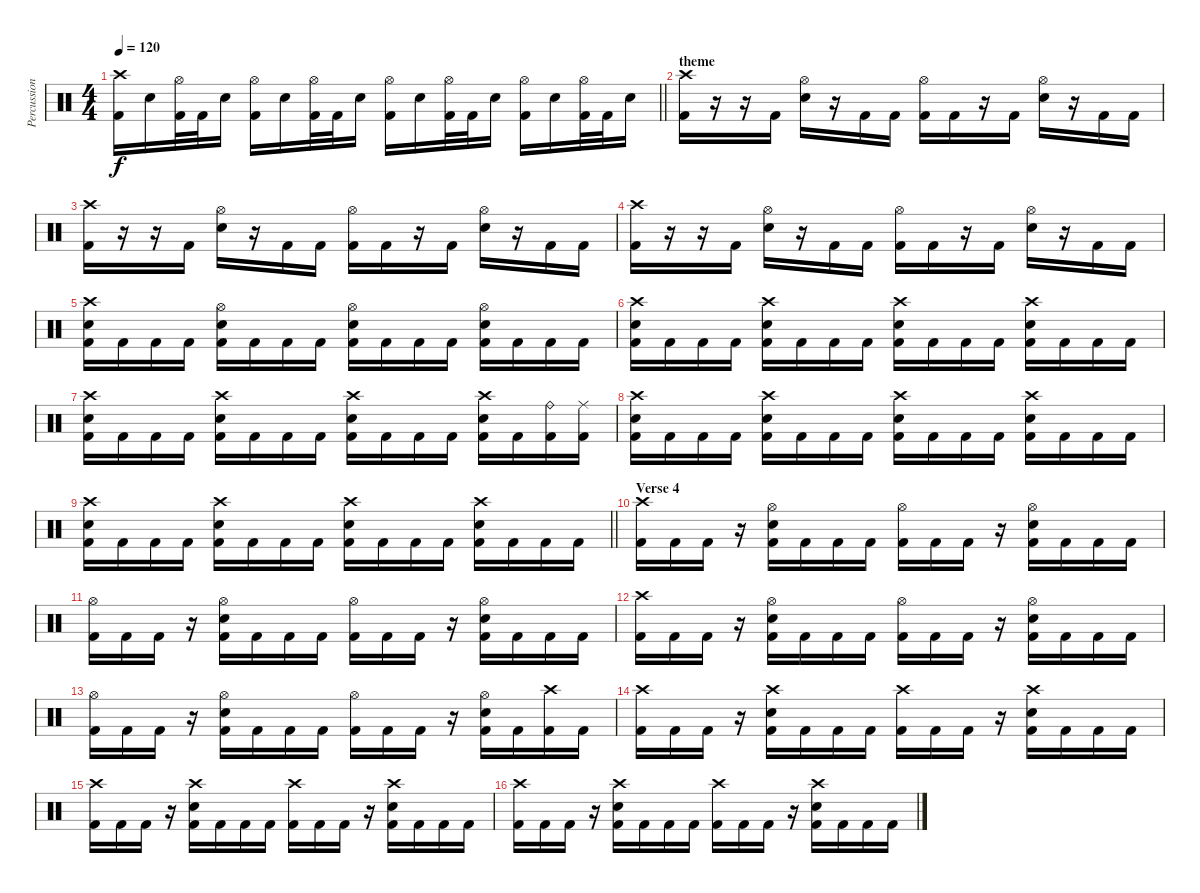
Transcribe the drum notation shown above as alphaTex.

\track ("Percussion" "Percussion") {instrument percussion}
\staff {score}
\articulation defaults
\ts (4 4)
\tempo 120
\clef neutral
\barLineRight lightlight
\ks c
("Crash high (hit)" "Kick (hit) 2").16{dy f} "Snare (hit) 2".16 ("Hi-Hat (open)" "Kick (hit) 2").32 "Kick (hit) 2".32 "Snare (hit) 2".16 ("Hi-Hat (open)" "Kick (hit) 2").16 "Snare (hit) 2".16 ("Hi-Hat (open)" "Kick (hit) 2").32 "Kick (hit) 2".32 "Snare (hit) 2".16 ("Hi-Hat (open)" "Kick (hit) 2").16 "Snare (hit) 2".16 ("Hi-Hat (open)" "Kick (hit) 2").32 "Kick (hit) 2".32 "Snare (hit) 2".16 ("Hi-Hat (open)" "Kick (hit) 2").16 "Snare (hit) 2".16 ("Hi-Hat (open)" "Kick (hit) 2").32 "Kick (hit) 2".32 "Snare (hit) 2".16 |
\section ("" "theme")
("Crash high (hit)" "Kick (hit) 2").16 r.16 r.16 "Kick (hit) 2".16 ("Hi-Hat (open)" "Snare (hit) 2").16 r.16 "Kick (hit) 2".16 "Kick (hit) 2".16 ("Hi-Hat (open)" "Kick (hit) 2").16 "Kick (hit) 2".16 r.16 "Kick (hit) 2".16 ("Hi-Hat (open)" "Snare (hit) 2").16 r.16 "Kick (hit) 2".16 "Kick (hit) 2".16 |
("Crash high (hit)" "Kick (hit) 2").16 r.16 r.16 "Kick (hit) 2".16 ("Hi-Hat (open)" "Snare (hit) 2").16 r.16 "Kick (hit) 2".16 "Kick (hit) 2".16 ("Hi-Hat (open)" "Kick (hit) 2").16 "Kick (hit) 2".16 r.16 "Kick (hit) 2".16 ("Hi-Hat (open)" "Snare (hit) 2").16 r.16 "Kick (hit) 2".16 "Kick (hit) 2".16 |
("Crash high (hit)" "Kick (hit) 2").16 r.16 r.16 "Kick (hit) 2".16 ("Hi-Hat (open)" "Snare (hit) 2").16 r.16 "Kick (hit) 2".16 "Kick (hit) 2".16 ("Hi-Hat (open)" "Kick (hit) 2").16 "Kick (hit) 2".16 r.16 "Kick (hit) 2".16 ("Hi-Hat (open)" "Snare (hit) 2").16 r.16 "Kick (hit) 2".16 "Kick (hit) 2".16 |
("Crash high (hit)" "Snare (hit) 2" "Kick (hit) 2").16 "Kick (hit) 2".16 "Kick (hit) 2".16 "Kick (hit) 2".16 ("Hi-Hat (open)" "Snare (hit) 2" "Kick (hit) 2").16 "Kick (hit) 2".16 "Kick (hit) 2".16 "Kick (hit) 2".16 ("Hi-Hat (open)" "Snare (hit) 2" "Kick (hit) 2").16 "Kick (hit) 2".16 "Kick (hit) 2".16 "Kick (hit) 2".16 ("Hi-Hat (open)" "Snare (hit) 2" "Kick (hit) 2").16 "Kick (hit) 2".16 "Kick (hit) 2".16 "Kick (hit) 2".16 |
("Crash high (hit)" "Snare (hit) 2" "Kick (hit) 2").16 "Kick (hit) 2".16 "Kick (hit) 2".16 "Kick (hit) 2".16 ("Crash high (hit)" "Snare (hit) 2" "Kick (hit) 2").16 "Kick (hit) 2".16 "Kick (hit) 2".16 "Kick (hit) 2".16 ("Crash high (hit)" "Snare (hit) 2" "Kick (hit) 2").16 "Kick (hit) 2".16 "Kick (hit) 2".16 "Kick (hit) 2".16 ("Crash high (hit)" "Snare (hit) 2" "Kick (hit) 2").16 "Kick (hit) 2".16 "Kick (hit) 2".16 "Kick (hit) 2".16 |
("Crash high (hit)" "Snare (hit) 2" "Kick (hit) 2").16 "Kick (hit) 2".16 "Kick (hit) 2".16 "Kick (hit) 2".16 ("Crash high (hit)" "Snare (hit) 2" "Kick (hit) 2").16 "Kick (hit) 2".16 "Kick (hit) 2".16 "Kick (hit) 2".16 ("Crash high (hit)" "Snare (hit) 2" "Kick (hit) 2").16 "Kick (hit) 2".16 "Kick (hit) 2".16 "Kick (hit) 2".16 ("Crash high (hit)" "Snare (hit) 2" "Kick (hit) 2").16 "Kick (hit) 2".16 ("Ride (bell)" "Kick (hit) 2").16 ("Ride (middle)" "Kick (hit) 2").16 |
("Crash high (hit)" "Snare (hit) 2" "Kick (hit) 2").16 "Kick (hit) 2".16 "Kick (hit) 2".16 "Kick (hit) 2".16 ("Crash high (hit)" "Snare (hit) 2" "Kick (hit) 2").16 "Kick (hit) 2".16 "Kick (hit) 2".16 "Kick (hit) 2".16 ("Crash high (hit)" "Snare (hit) 2" "Kick (hit) 2").16 "Kick (hit) 2".16 "Kick (hit) 2".16 "Kick (hit) 2".16 ("Crash high (hit)" "Snare (hit) 2" "Kick (hit) 2").16 "Kick (hit) 2".16 "Kick (hit) 2".16 "Kick (hit) 2".16 |
\barLineRight lightlight
("Crash high (hit)" "Snare (hit) 2" "Kick (hit) 2").16 "Kick (hit) 2".16 "Kick (hit) 2".16 "Kick (hit) 2".16 ("Crash high (hit)" "Snare (hit) 2" "Kick (hit) 2").16 "Kick (hit) 2".16 "Kick (hit) 2".16 "Kick (hit) 2".16 ("Crash high (hit)" "Snare (hit) 2" "Kick (hit) 2").16 "Kick (hit) 2".16 "Kick (hit) 2".16 "Kick (hit) 2".16 ("Crash high (hit)" "Snare (hit) 2" "Kick (hit) 2").16 "Kick (hit) 2".16 "Kick (hit) 2".16 "Kick (hit) 2".16 |
\section ("" "Verse 4")
("Crash high (hit)" "Kick (hit) 2").16 "Kick (hit) 2".16 "Kick (hit) 2".16 r.16 ("Hi-Hat (open)" "Snare (hit) 2" "Kick (hit) 2").16 "Kick (hit) 2".16 "Kick (hit) 2".16 "Kick (hit) 2".16 ("Hi-Hat (open)" "Kick (hit) 2").16 "Kick (hit) 2".16 "Kick (hit) 2".16 r.16 ("Hi-Hat (open)" "Snare (hit) 2" "Kick (hit) 2").16 "Kick (hit) 2".16 "Kick (hit) 2".16 "Kick (hit) 2".16 |
("Hi-Hat (open)" "Kick (hit) 2").16 "Kick (hit) 2".16 "Kick (hit) 2".16 r.16 ("Hi-Hat (open)" "Snare (hit) 2" "Kick (hit) 2").16 "Kick (hit) 2".16 "Kick (hit) 2".16 "Kick (hit) 2".16 ("Hi-Hat (open)" "Kick (hit) 2").16 "Kick (hit) 2".16 "Kick (hit) 2".16 r.16 ("Hi-Hat (open)" "Snare (hit) 2" "Kick (hit) 2").16 "Kick (hit) 2".16 "Kick (hit) 2".16 "Kick (hit) 2".16 |
("Crash high (hit)" "Kick (hit) 2").16 "Kick (hit) 2".16 "Kick (hit) 2".16 r.16 ("Hi-Hat (open)" "Snare (hit) 2" "Kick (hit) 2").16 "Kick (hit) 2".16 "Kick (hit) 2".16 "Kick (hit) 2".16 ("Hi-Hat (open)" "Kick (hit) 2").16 "Kick (hit) 2".16 "Kick (hit) 2".16 r.16 ("Hi-Hat (open)" "Snare (hit) 2" "Kick (hit) 2").16 "Kick (hit) 2".16 "Kick (hit) 2".16 "Kick (hit) 2".16 |
("Hi-Hat (open)" "Kick (hit) 2").16 "Kick (hit) 2".16 "Kick (hit) 2".16 r.16 ("Hi-Hat (open)" "Snare (hit) 2" "Kick (hit) 2").16 "Kick (hit) 2".16 "Kick (hit) 2".16 "Kick (hit) 2".16 ("Hi-Hat (open)" "Kick (hit) 2").16 "Kick (hit) 2".16 "Kick (hit) 2".16 r.16 ("Hi-Hat (open)" "Snare (hit) 2" "Kick (hit) 2").16 "Kick (hit) 2".16 ("Crash high (hit)" "Kick (hit) 2").16 "Kick (hit) 2".16 |
("Crash high (hit)" "Kick (hit) 2").16 "Kick (hit) 2".16 "Kick (hit) 2".16 r.16 ("Crash high (hit)" "Snare (hit) 2" "Kick (hit) 2").16 "Kick (hit) 2".16 "Kick (hit) 2".16 "Kick (hit) 2".16 ("Crash high (hit)" "Kick (hit) 2").16 "Kick (hit) 2".16 "Kick (hit) 2".16 r.16 ("Crash high (hit)" "Snare (hit) 2" "Kick (hit) 2").16 "Kick (hit) 2".16 "Kick (hit) 2".16 "Kick (hit) 2".16 |
("Crash high (hit)" "Kick (hit) 2").16 "Kick (hit) 2".16 "Kick (hit) 2".16 r.16 ("Crash high (hit)" "Snare (hit) 2" "Kick (hit) 2").16 "Kick (hit) 2".16 "Kick (hit) 2".16 "Kick (hit) 2".16 ("Crash high (hit)" "Kick (hit) 2").16 "Kick (hit) 2".16 "Kick (hit) 2".16 r.16 ("Crash high (hit)" "Snare (hit) 2" "Kick (hit) 2").16 "Kick (hit) 2".16 "Kick (hit) 2".16 "Kick (hit) 2".16 |
("Crash high (hit)" "Kick (hit) 2").16 "Kick (hit) 2".16 "Kick (hit) 2".16 r.16 ("Crash high (hit)" "Snare (hit) 2" "Kick (hit) 2").16 "Kick (hit) 2".16 "Kick (hit) 2".16 "Kick (hit) 2".16 ("Crash high (hit)" "Kick (hit) 2").16 "Kick (hit) 2".16 "Kick (hit) 2".16 r.16 ("Crash high (hit)" "Snare (hit) 2" "Kick (hit) 2").16 "Kick (hit) 2".16 "Kick (hit) 2".16 "Kick (hit) 2".16
